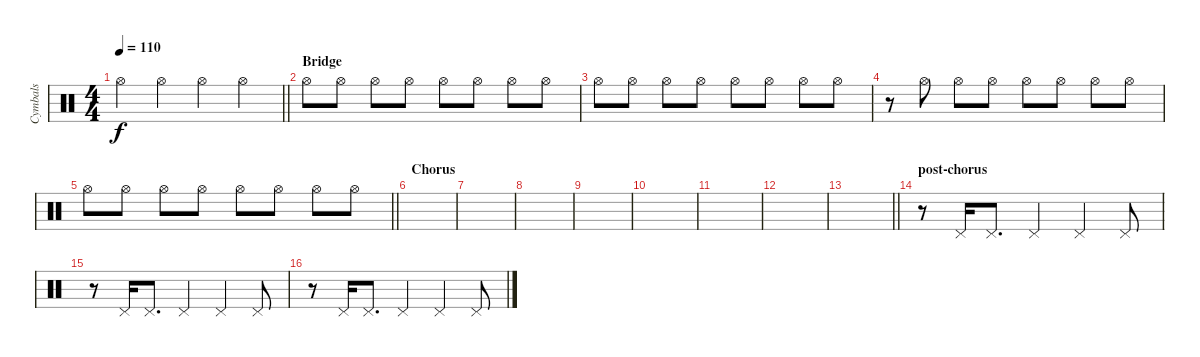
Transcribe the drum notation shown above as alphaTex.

\track ("Cymbals" "Cymbals") {instrument percussion}
\staff {score}
\articulation defaults
\ts (4 4)
\tempo 110
\clef neutral
\barLineRight lightlight
\ks c "Hi-Hat (open)".4{dy f} "Hi-Hat (open)".4 "Hi-Hat (open)".4 "Hi-Hat (open)".4
|
\section ("" "Bridge")
"Hi-Hat (open)".8 "Hi-Hat (open)".8 "Hi-Hat (open)".8 "Hi-Hat (open)".8 "Hi-Hat (open)".8 "Hi-Hat (open)".8 "Hi-Hat (open)".8 "Hi-Hat (open)".8 |
"Hi-Hat (open)".8 "Hi-Hat (open)".8 "Hi-Hat (open)".8 "Hi-Hat (open)".8 "Hi-Hat (open)".8 "Hi-Hat (open)".8 "Hi-Hat (open)".8 "Hi-Hat (open)".8 |
r.8 "Hi-Hat (open)".8 "Hi-Hat (open)".8 "Hi-Hat (open)".8 "Hi-Hat (open)".8 "Hi-Hat (open)".8 "Hi-Hat (open)".8 "Hi-Hat (open)".8 |
\barLineRight lightlight "Hi-Hat (open)".8 "Hi-Hat (open)".8 "Hi-Hat (open)".8 "Hi-Hat (open)".8 "Hi-Hat (open)".8 "Hi-Hat (open)".8 "Hi-Hat (open)".8 "Hi-Hat (open)".8
|
\section ("" "Chorus")
|
|
|
|
|
|
|
\barLineRight lightlight
|
\section ("" "post-chorus")
r.8 "Pedal Hi-Hat (hit)".16 "Pedal Hi-Hat (hit)".8{d} "Pedal Hi-Hat (hit)".4 "Pedal Hi-Hat (hit)".4 "Pedal Hi-Hat (hit)".8 |
r.8 "Pedal Hi-Hat (hit)".16 "Pedal Hi-Hat (hit)".8{d} "Pedal Hi-Hat (hit)".4 "Pedal Hi-Hat (hit)".4 "Pedal Hi-Hat (hit)".8 |
r.8 "Pedal Hi-Hat (hit)".16 "Pedal Hi-Hat (hit)".8{d} "Pedal Hi-Hat (hit)".4 "Pedal Hi-Hat (hit)".4 "Pedal Hi-Hat (hit)".8
